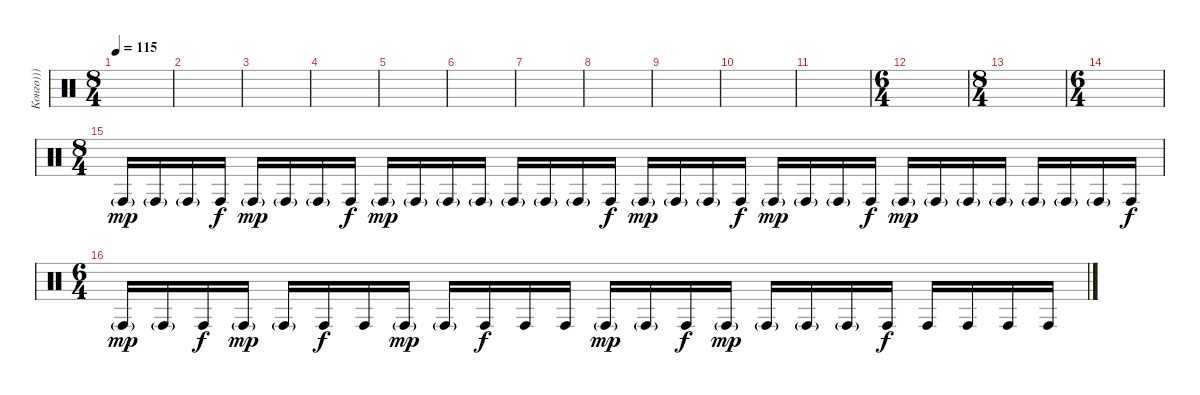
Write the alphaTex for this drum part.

\track ("Конго)))" "Конго)))") {instrument percussion}
\staff {score}
\articulation defaults
\ts (8 4)
\tempo 115
\clef neutral
\ks c
|
|
|
|
|
|
|
|
|
|
|
\ts (6 4)
|
\ts (8 4)
|
\ts (6 4)
|
\ts (8 4)
"Conga high (hit)"{g}.16{dy mp} "Conga high (hit)"{g}.16 "Conga high (hit)"{g}.16 "Conga high (hit)".16{dy f} "Conga high (hit)"{g}.16{dy mp} "Conga high (hit)"{g}.16 "Conga high (hit)"{g}.16 "Conga high (hit)".16{dy f} "Conga high (hit)"{g}.16{dy mp} "Conga high (hit)"{g}.16 "Conga high (hit)"{g}.16 "Conga high (hit)"{g}.16 "Conga high (hit)"{g}.16 "Conga high (hit)"{g}.16 "Conga high (hit)"{g}.16 "Conga high (hit)".16{dy f} "Conga high (hit)"{g}.16{dy mp} "Conga high (hit)"{g}.16 "Conga high (hit)"{g}.16 "Conga high (hit)".16{dy f} "Conga high (hit)"{g}.16{dy mp} "Conga high (hit)"{g}.16 "Conga high (hit)"{g}.16 "Conga high (hit)".16{dy f} "Conga high (hit)"{g}.16{dy mp} "Conga high (hit)"{g}.16 "Conga high (hit)"{g}.16 "Conga high (hit)"{g}.16 "Conga high (hit)"{g}.16 "Conga high (hit)"{g}.16 "Conga high (hit)"{g}.16 "Conga high (hit)".16{dy f} |
\ts (6 4)
"Conga high (hit)"{g}.16{dy mp} "Conga high (hit)"{g}.16 "Conga high (hit)".16{dy f} "Conga high (hit)"{g}.16{dy mp} "Conga high (hit)"{g}.16 "Conga high (hit)".16{dy f} "Conga high (hit)".16 "Conga high (hit)"{g}.16{dy mp} "Conga high (hit)"{g}.16 "Conga high (hit)".16{dy f} "Conga high (hit)".16 "Conga high (hit)".16 "Conga high (hit)"{g}.16{dy mp} "Conga high (hit)"{g}.16 "Conga high (hit)".16{dy f} "Conga high (hit)"{g}.16{dy mp} "Conga high (hit)"{g}.16 "Conga high (hit)"{g}.16 "Conga high (hit)"{g}.16 "Conga high (hit)".16{dy f} "Conga high (hit)".16 "Conga high (hit)".16 "Conga high (hit)".16 "Conga high (hit)".16
